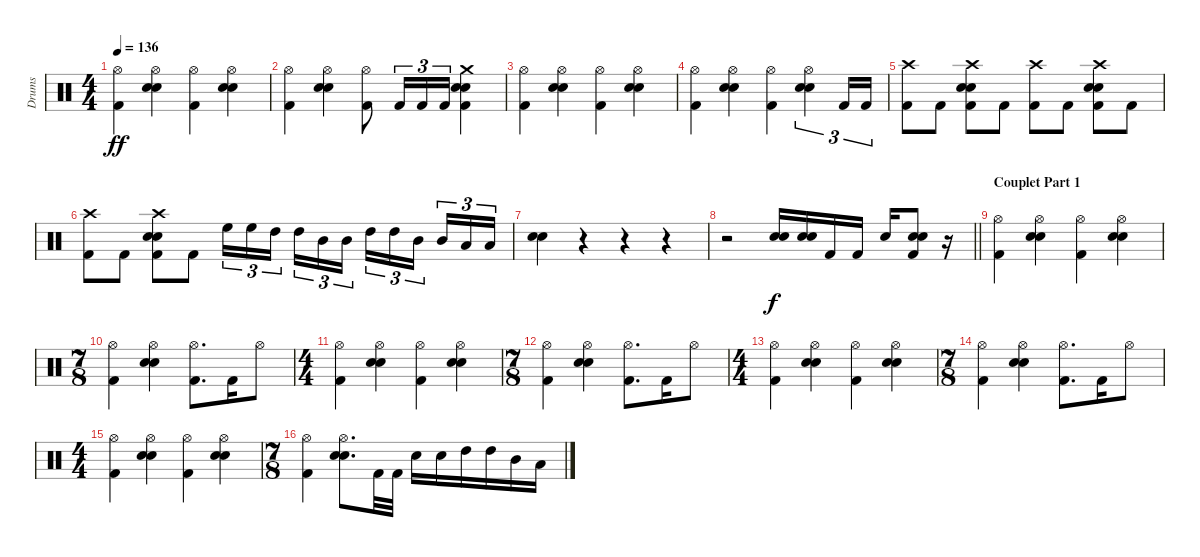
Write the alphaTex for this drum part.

\track ("Drums" "Drums") {instrument percussion}
\staff {score}
\articulation defaults
\ts (4 4)
\tempo 136
\clef neutral
\ks c
("Hi-Hat (open)" "Kick (hit) 2").4{dy ff} ("Hi-Hat (open)" "Electric Snare (hit)" "Snare (hit) 2").4 ("Hi-Hat (open)" "Kick (hit) 2").4 ("Hi-Hat (open)" "Electric Snare (hit)" "Snare (hit) 2").4 |
("Hi-Hat (open)" "Kick (hit) 2").4 ("Hi-Hat (open)" "Electric Snare (hit)" "Snare (hit) 2").4 ("Hi-Hat (open)" "Kick (hit) 2").8 "Kick (hit) 2".16{tu (3 2)} "Kick (hit) 2".16{tu (3 2)} "Kick (hit) 2".16{tu (3 2)} ("Crash medium (hit)" "Electric Snare (hit)" "Snare (hit) 2" "Kick (hit) 2").4 |
("Hi-Hat (open)" "Kick (hit) 2").4 ("Hi-Hat (open)" "Electric Snare (hit)" "Snare (hit) 2").4 ("Hi-Hat (open)" "Kick (hit) 2").4 ("Hi-Hat (open)" "Electric Snare (hit)" "Snare (hit) 2").4 |
("Hi-Hat (open)" "Kick (hit) 2").4 ("Hi-Hat (open)" "Electric Snare (hit)" "Snare (hit) 2").4 ("Hi-Hat (open)" "Kick (hit) 2").4 ("Hi-Hat (open)" "Electric Snare (hit)" "Snare (hit) 2").4{tu (3 2)} "Kick (hit) 2".16{tu (3 2)} "Kick (hit) 2".16{tu (3 2)} |
("Crash high (hit)" "Kick (hit) 2").8 "Kick (hit) 2".8 ("Crash high (hit)" "Electric Snare (hit)" "Snare (hit) 2" "Kick (hit) 2").8 "Kick (hit) 2".8 ("Crash high (hit)" "Kick (hit) 2").8 "Kick (hit) 2".8 ("Crash high (hit)" "Electric Snare (hit)" "Snare (hit) 2" "Kick (hit) 2").8 "Kick (hit) 2".8 |
("Crash high (hit)" "Kick (hit) 2").8 "Kick (hit) 2".8 ("Crash high (hit)" "Electric Snare (hit)" "Snare (hit) 2" "Kick (hit) 2").8 "Kick (hit) 2".8 "High Floor Tom (hit)".16{tu (3 2)} "High Floor Tom (hit)".16{tu (3 2)} "High Tom (hit)".16{tu (3 2) beam splitsecondary} "High Tom (hit)".16{tu (3 2)} "Mid Tom (hit)".16{tu (3 2)} "Mid Tom (hit)".16{tu (3 2)} "High Tom (hit)".16{tu (3 2)} "High Tom (hit)".16{tu (3 2)} "Mid Tom (hit)".16{tu (3 2) beam splitsecondary} "Mid Tom (hit)".16{tu (3 2)} "Low Tom (hit)".16{tu (3 2)} "Low Tom (hit)".16{tu (3 2)} |
("Electric Snare (hit)" "Snare (hit) 2").4 r.4 r.4 r.4 |
\barLineRight lightlight
r.2 ("Electric Snare (hit)" "Snare (hit) 2").16{dy f} ("Electric Snare (hit)" "Snare (hit) 2").16 "Kick (hit) 2".16 "Kick (hit) 2".16 "Snare (hit) 2".16 ("Electric Snare (hit)" "Snare (hit) 2" "Kick (hit) 2").8 r.16 |
\section ("" "Couplet Part 1")
("Hi-Hat (open)" "Kick (hit) 2").4 ("Hi-Hat (open)" "Electric Snare (hit)" "Snare (hit) 2").4 ("Hi-Hat (open)" "Kick (hit) 2").4 ("Hi-Hat (open)" "Electric Snare (hit)" "Snare (hit) 2").4 |
\ts (7 8)
("Hi-Hat (open)" "Kick (hit) 2").4 ("Hi-Hat (open)" "Electric Snare (hit)" "Snare (hit) 2").4 ("Hi-Hat (open)" "Kick (hit) 2").8{d} "Kick (hit) 2".16 "Hi-Hat (open)".8 |
\ts (4 4)
("Hi-Hat (open)" "Kick (hit) 2").4 ("Hi-Hat (open)" "Electric Snare (hit)" "Snare (hit) 2").4 ("Hi-Hat (open)" "Kick (hit) 2").4 ("Hi-Hat (open)" "Electric Snare (hit)" "Snare (hit) 2").4 |
\ts (7 8)
("Hi-Hat (open)" "Kick (hit) 2").4 ("Hi-Hat (open)" "Electric Snare (hit)" "Snare (hit) 2").4 ("Hi-Hat (open)" "Kick (hit) 2").8{d} "Kick (hit) 2".16 "Hi-Hat (open)".8 |
\ts (4 4)
("Hi-Hat (open)" "Kick (hit) 2").4 ("Hi-Hat (open)" "Electric Snare (hit)" "Snare (hit) 2").4 ("Hi-Hat (open)" "Kick (hit) 2").4 ("Hi-Hat (open)" "Electric Snare (hit)" "Snare (hit) 2").4 |
\ts (7 8)
("Hi-Hat (open)" "Kick (hit) 2").4 ("Hi-Hat (open)" "Electric Snare (hit)" "Snare (hit) 2").4 ("Hi-Hat (open)" "Kick (hit) 2").8{d} "Kick (hit) 2".16 "Hi-Hat (open)".8 |
\ts (4 4)
("Hi-Hat (open)" "Kick (hit) 2").4 ("Hi-Hat (open)" "Electric Snare (hit)" "Snare (hit) 2").4 ("Hi-Hat (open)" "Kick (hit) 2").4 ("Hi-Hat (open)" "Electric Snare (hit)" "Snare (hit) 2").4 |
\ts (7 8)
("Hi-Hat (open)" "Kick (hit) 2").4 ("Hi-Hat (open)" "Electric Snare (hit)" "Snare (hit) 2").8{d} "Kick (hit) 2".32 "Kick (hit) 2".32 "Snare (hit) 2".16 "Snare (hit) 2".16 "High Tom (hit)".16 "High Tom (hit)".16 "Mid Tom (hit)".16 "Low Tom (hit)".16
